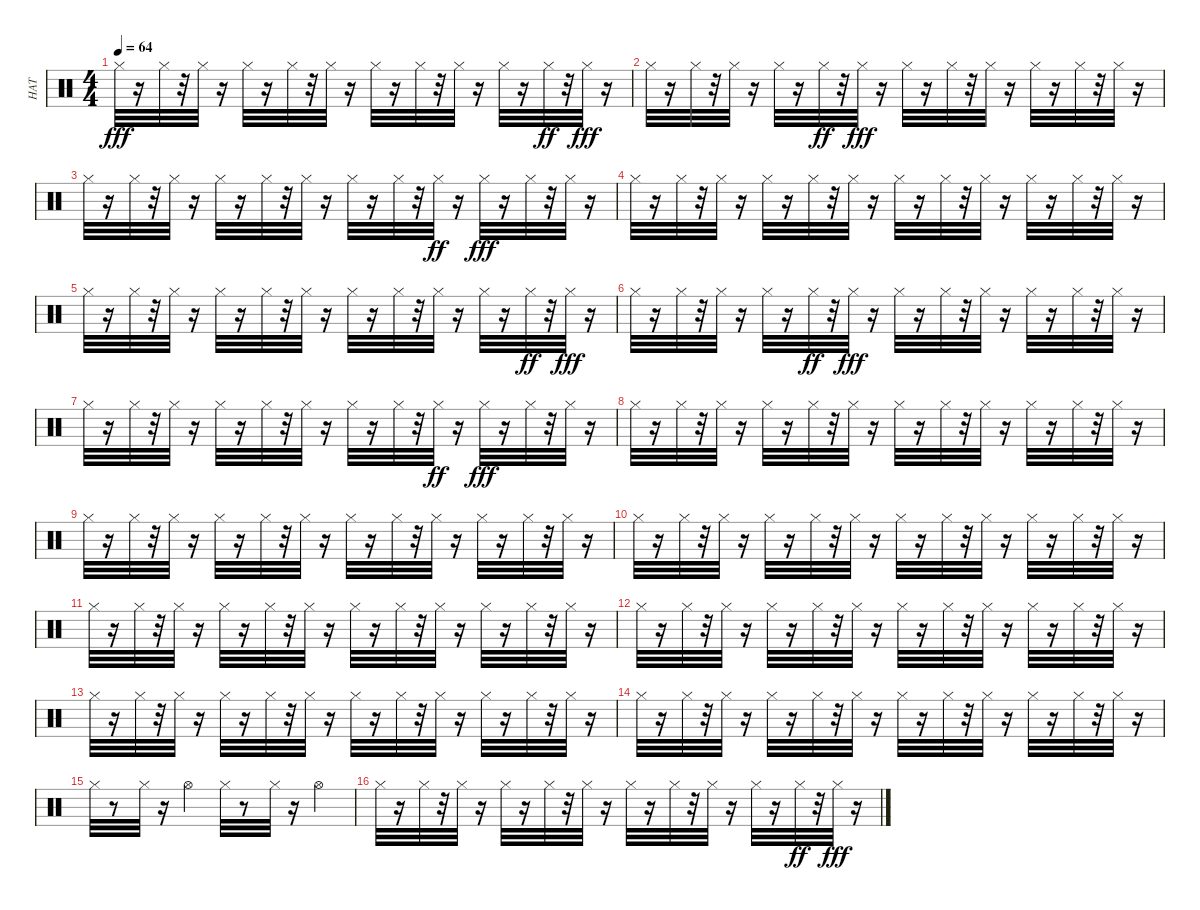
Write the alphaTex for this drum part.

\track ("HAT" "HAT") {instrument percussion}
\staff {score}
\articulation defaults
\ts (4 4)
\tempo 64
\clef neutral
\ks c "Hi-Hat (closed)".32{dy fff}
r.16 "Hi-Hat (closed)".32 r.32 "Hi-Hat (closed)".32 r.16 "Hi-Hat (closed)".32 r.16 "Hi-Hat (closed)".32 r.32 "Hi-Hat (closed)".32 r.16 "Hi-Hat (closed)".32 r.16 "Hi-Hat (closed)".32 r.32 "Hi-Hat (closed)".32 r.16 "Hi-Hat (closed)".32 r.16 "Hi-Hat (closed)".32{dy ff} r.32 "Hi-Hat (closed)".32{dy fff} r.16 |
"Hi-Hat (closed)".32 r.16 "Hi-Hat (closed)".32 r.32 "Hi-Hat (closed)".32 r.16 "Hi-Hat (closed)".32 r.16 "Hi-Hat (closed)".32{dy ff} r.32 "Hi-Hat (closed)".32{dy fff} r.16 "Hi-Hat (closed)".32 r.16 "Hi-Hat (closed)".32 r.32 "Hi-Hat (closed)".32 r.16 "Hi-Hat (closed)".32 r.16 "Hi-Hat (closed)".32 r.32 "Hi-Hat (closed)".32 r.16 |
"Hi-Hat (closed)".32 r.16 "Hi-Hat (closed)".32 r.32 "Hi-Hat (closed)".32 r.16 "Hi-Hat (closed)".32 r.16 "Hi-Hat (closed)".32 r.32 "Hi-Hat (closed)".32 r.16 "Hi-Hat (closed)".32 r.16 "Hi-Hat (closed)".32 r.32 "Hi-Hat (closed)".32{dy ff} r.16 "Hi-Hat (closed)".32{dy fff} r.16 "Hi-Hat (closed)".32 r.32 "Hi-Hat (closed)".32 r.16 |
"Hi-Hat (closed)".32 r.16 "Hi-Hat (closed)".32 r.32 "Hi-Hat (closed)".32 r.16 "Hi-Hat (closed)".32 r.16 "Hi-Hat (closed)".32 r.32 "Hi-Hat (closed)".32 r.16 "Hi-Hat (closed)".32 r.16 "Hi-Hat (closed)".32 r.32 "Hi-Hat (closed)".32 r.16 "Hi-Hat (closed)".32 r.16 "Hi-Hat (closed)".32 r.32 "Hi-Hat (closed)".32 r.16 |
"Hi-Hat (closed)".32 r.16 "Hi-Hat (closed)".32 r.32 "Hi-Hat (closed)".32 r.16 "Hi-Hat (closed)".32 r.16 "Hi-Hat (closed)".32 r.32 "Hi-Hat (closed)".32 r.16 "Hi-Hat (closed)".32 r.16 "Hi-Hat (closed)".32 r.32 "Hi-Hat (closed)".32 r.16 "Hi-Hat (closed)".32 r.16 "Hi-Hat (closed)".32{dy ff} r.32 "Hi-Hat (closed)".32{dy fff} r.16 |
"Hi-Hat (closed)".32 r.16 "Hi-Hat (closed)".32 r.32 "Hi-Hat (closed)".32 r.16 "Hi-Hat (closed)".32 r.16 "Hi-Hat (closed)".32{dy ff} r.32 "Hi-Hat (closed)".32{dy fff} r.16 "Hi-Hat (closed)".32 r.16 "Hi-Hat (closed)".32 r.32 "Hi-Hat (closed)".32 r.16 "Hi-Hat (closed)".32 r.16 "Hi-Hat (closed)".32 r.32 "Hi-Hat (closed)".32 r.16 |
"Hi-Hat (closed)".32 r.16 "Hi-Hat (closed)".32 r.32 "Hi-Hat (closed)".32 r.16 "Hi-Hat (closed)".32 r.16 "Hi-Hat (closed)".32 r.32 "Hi-Hat (closed)".32 r.16 "Hi-Hat (closed)".32 r.16 "Hi-Hat (closed)".32 r.32 "Hi-Hat (closed)".32{dy ff} r.16 "Hi-Hat (closed)".32{dy fff} r.16 "Hi-Hat (closed)".32 r.32 "Hi-Hat (closed)".32 r.16 |
"Hi-Hat (closed)".32 r.16 "Hi-Hat (closed)".32 r.32 "Hi-Hat (closed)".32 r.16 "Hi-Hat (closed)".32 r.16 "Hi-Hat (closed)".32 r.32 "Hi-Hat (closed)".32 r.16 "Hi-Hat (closed)".32 r.16 "Hi-Hat (closed)".32 r.32 "Hi-Hat (closed)".32 r.16 "Hi-Hat (closed)".32 r.16 "Hi-Hat (closed)".32 r.32 "Hi-Hat (closed)".32 r.16 |
"Hi-Hat (closed)".32 r.16 "Hi-Hat (closed)".32 r.32 "Hi-Hat (closed)".32 r.16 "Hi-Hat (closed)".32 r.16 "Hi-Hat (closed)".32 r.32 "Hi-Hat (closed)".32 r.16 "Hi-Hat (closed)".32 r.16 "Hi-Hat (closed)".32 r.32 "Hi-Hat (closed)".32 r.16 "Hi-Hat (closed)".32 r.16 "Hi-Hat (closed)".32 r.32 "Hi-Hat (closed)".32 r.16 |
"Hi-Hat (closed)".32 r.16 "Hi-Hat (closed)".32 r.32 "Hi-Hat (closed)".32 r.16 "Hi-Hat (closed)".32 r.16 "Hi-Hat (closed)".32 r.32 "Hi-Hat (closed)".32 r.16 "Hi-Hat (closed)".32 r.16 "Hi-Hat (closed)".32 r.32 "Hi-Hat (closed)".32 r.16 "Hi-Hat (closed)".32 r.16 "Hi-Hat (closed)".32 r.32 "Hi-Hat (closed)".32 r.16 |
"Hi-Hat (closed)".32 r.16 "Hi-Hat (closed)".32 r.32 "Hi-Hat (closed)".32 r.16 "Hi-Hat (closed)".32 r.16 "Hi-Hat (closed)".32 r.32 "Hi-Hat (closed)".32 r.16 "Hi-Hat (closed)".32 r.16 "Hi-Hat (closed)".32 r.32 "Hi-Hat (closed)".32 r.16 "Hi-Hat (closed)".32 r.16 "Hi-Hat (closed)".32 r.32 "Hi-Hat (closed)".32 r.16 |
"Hi-Hat (closed)".32 r.16 "Hi-Hat (closed)".32 r.32 "Hi-Hat (closed)".32 r.16 "Hi-Hat (closed)".32 r.16 "Hi-Hat (closed)".32 r.32 "Hi-Hat (closed)".32 r.16 "Hi-Hat (closed)".32 r.16 "Hi-Hat (closed)".32 r.32 "Hi-Hat (closed)".32 r.16 "Hi-Hat (closed)".32 r.16 "Hi-Hat (closed)".32 r.32 "Hi-Hat (closed)".32 r.16 |
"Hi-Hat (closed)".32 r.16 "Hi-Hat (closed)".32 r.32 "Hi-Hat (closed)".32 r.16 "Hi-Hat (closed)".32 r.16 "Hi-Hat (closed)".32 r.32 "Hi-Hat (closed)".32 r.16 "Hi-Hat (closed)".32 r.16 "Hi-Hat (closed)".32 r.32 "Hi-Hat (closed)".32 r.16 "Hi-Hat (closed)".32 r.16 "Hi-Hat (closed)".32 r.32 "Hi-Hat (closed)".32 r.16 |
"Hi-Hat (closed)".32 r.16 "Hi-Hat (closed)".32 r.32 "Hi-Hat (closed)".32 r.16 "Hi-Hat (closed)".32 r.16 "Hi-Hat (closed)".32 r.32 "Hi-Hat (closed)".32 r.16 "Hi-Hat (closed)".32 r.16 "Hi-Hat (closed)".32 r.32 "Hi-Hat (closed)".32 r.16 "Hi-Hat (closed)".32 r.16 "Hi-Hat (closed)".32 r.32 "Hi-Hat (closed)".32 r.16 |
"Hi-Hat (closed)".32 r.8 "Hi-Hat (closed)".32 r.16 "Hi-Hat (open)".4 "Hi-Hat (closed)".32 r.8 "Hi-Hat (closed)".32 r.16 "Hi-Hat (open)".4 |
"Hi-Hat (closed)".32 r.16 "Hi-Hat (closed)".32 r.32 "Hi-Hat (closed)".32 r.16 "Hi-Hat (closed)".32 r.16 "Hi-Hat (closed)".32 r.32 "Hi-Hat (closed)".32 r.16 "Hi-Hat (closed)".32 r.16 "Hi-Hat (closed)".32 r.32 "Hi-Hat (closed)".32 r.16 "Hi-Hat (closed)".32 r.16 "Hi-Hat (closed)".32{dy ff} r.32 "Hi-Hat (closed)".32{dy fff} r.16
